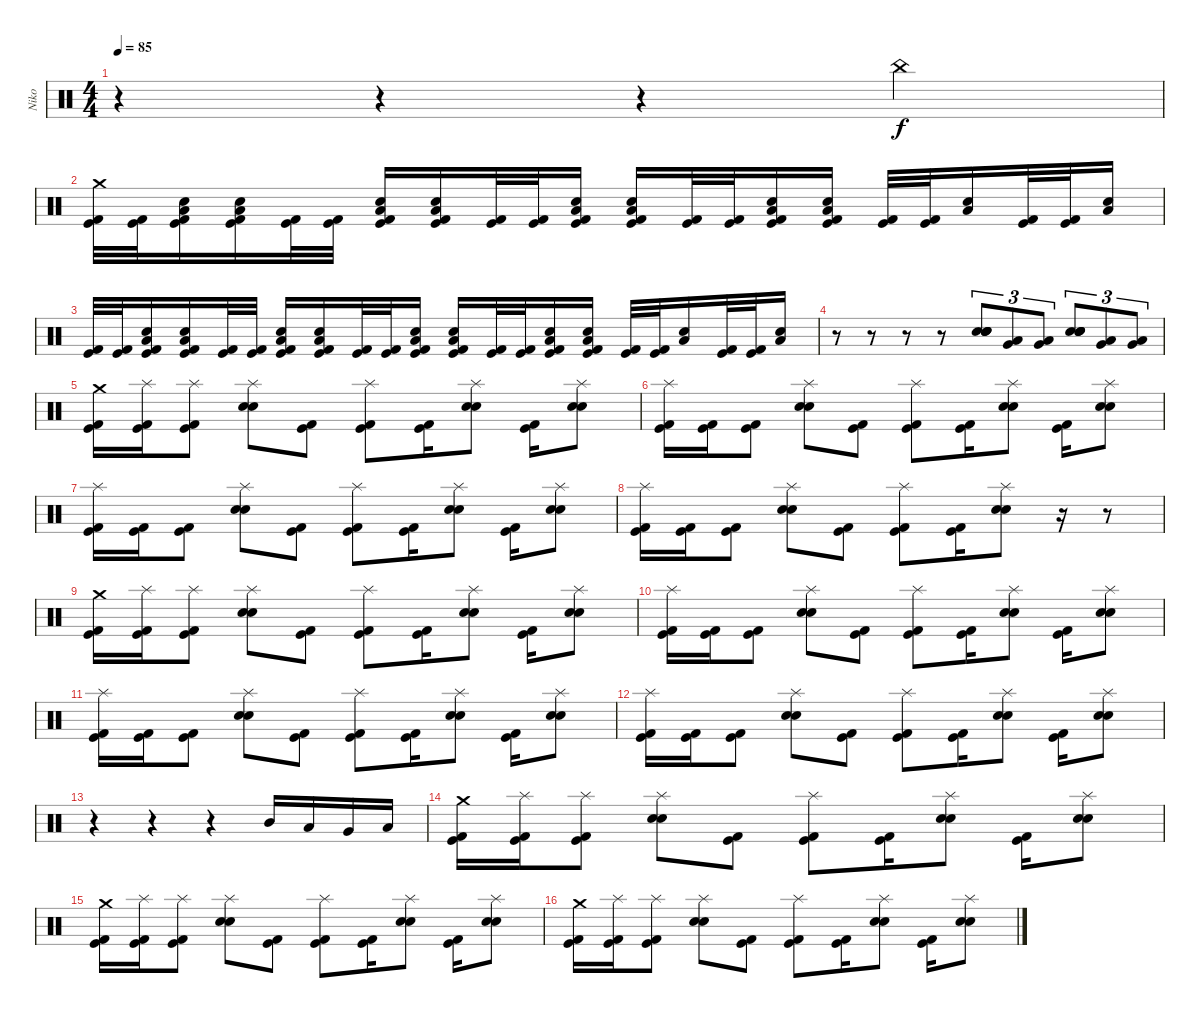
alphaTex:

\track ("Niko" "Niko") {instrument percussion}
\staff {score}
\articulation defaults
\ts (4 4)
\tempo 85
\clef neutral
\ks c
r.4{dy f} r.4 r.4 "China (hit)".4 |
("Crash medium (hit)" "Kick (hit) 2" "Kick (hit)").32 ("Kick (hit)" "Kick (hit) 2").32 ("Electric Snare (hit)" "Low Floor Tom (hit)" "Kick (hit)" "Kick (hit) 2").16 ("Electric Snare (hit)" "Low Floor Tom (hit)" "Kick (hit) 2" "Kick (hit)").16 ("Kick (hit) 2" "Kick (hit)").32 ("Kick (hit)" "Kick (hit) 2").32 ("Electric Snare (hit)" "Low Floor Tom (hit)" "Kick (hit) 2" "Kick (hit)").16 ("Electric Snare (hit)" "Low Floor Tom (hit)" "Kick (hit)" "Kick (hit) 2").16 ("Kick (hit) 2" "Kick (hit)").32 ("Kick (hit)" "Kick (hit) 2").32 ("Low Floor Tom (hit)" "Electric Snare (hit)" "Kick (hit) 2" "Kick (hit)").16 ("Low Floor Tom (hit)" "Electric Snare (hit)" "Kick (hit)" "Kick (hit) 2").16 ("Kick (hit) 2" "Kick (hit)").32 ("Kick (hit)" "Kick (hit) 2").32 ("Low Floor Tom (hit)" "Electric Snare (hit)" "Kick (hit) 2" "Kick (hit)").16 ("Low Floor Tom (hit)" "Electric Snare (hit)" "Kick (hit)" "Kick (hit) 2").16 ("Kick (hit) 2" "Kick (hit)").32 ("Kick (hit)" "Kick (hit) 2").32 ("Low Floor Tom (hit)" "Electric Snare (hit)").16 ("Kick (hit) 2" "Kick (hit)").32 ("Kick (hit)" "Kick (hit) 2").32 ("Low Floor Tom (hit)" "Electric Snare (hit)").16 |
("Kick (hit) 2" "Kick (hit)").32 ("Kick (hit)" "Kick (hit) 2").32 ("Electric Snare (hit)" "Low Floor Tom (hit)" "Kick (hit)" "Kick (hit) 2").16 ("Electric Snare (hit)" "Low Floor Tom (hit)" "Kick (hit) 2" "Kick (hit)").16 ("Kick (hit) 2" "Kick (hit)").32 ("Kick (hit)" "Kick (hit) 2").32 ("Electric Snare (hit)" "Low Floor Tom (hit)" "Kick (hit) 2" "Kick (hit)").16 ("Electric Snare (hit)" "Low Floor Tom (hit)" "Kick (hit)" "Kick (hit) 2").16 ("Kick (hit) 2" "Kick (hit)").32 ("Kick (hit)" "Kick (hit) 2").32 ("Low Floor Tom (hit)" "Electric Snare (hit)" "Kick (hit) 2" "Kick (hit)").16 ("Low Floor Tom (hit)" "Electric Snare (hit)" "Kick (hit)" "Kick (hit) 2").16 ("Kick (hit) 2" "Kick (hit)").32 ("Kick (hit)" "Kick (hit) 2").32 ("Low Floor Tom (hit)" "Electric Snare (hit)" "Kick (hit) 2" "Kick (hit)").16 ("Low Floor Tom (hit)" "Electric Snare (hit)" "Kick (hit)" "Kick (hit) 2").16 ("Kick (hit) 2" "Kick (hit)").32 ("Kick (hit)" "Kick (hit) 2").32 ("Low Floor Tom (hit)" "Electric Snare (hit)").16 ("Kick (hit) 2" "Kick (hit)").32 ("Kick (hit)" "Kick (hit) 2").32 ("Low Floor Tom (hit)" "Electric Snare (hit)").16 |
r.8 r.8 r.8 r.8 ("Electric Snare (hit)" "Electric Snare (hit)" "Electric Snare (hit)" "Electric Snare (hit)").8{tu (3 2)} ("Low Tom (hit)" "Very Low Tom (hit)").8{tu (3 2)} ("Low Floor Tom (hit)" "Very Low Tom (hit)").8{tu (3 2)} ("Electric Snare (hit)" "Electric Snare (hit)" "Electric Snare (hit)" "Electric Snare (hit)").8{tu (3 2)} ("Low Tom (hit)" "Very Low Tom (hit)").8{tu (3 2)} ("Low Floor Tom (hit)" "Very Low Tom (hit)").8{tu (3 2)} |
("Crash medium (hit)" "Kick (hit) 2" "Kick (hit)").16 ("Splash (hit)" "Kick (hit)" "Kick (hit) 2").16 ("Splash (hit)" "Kick (hit) 2" "Kick (hit)").8 ("Splash (hit)" "Electric Snare (hit)" "Electric Snare (hit)").8 ("Kick (hit) 2" "Kick (hit)").8 ("Splash (hit)" "Kick (hit)" "Kick (hit) 2").8 ("Kick (hit) 2" "Kick (hit)").16 ("Splash (hit)" "Electric Snare (hit)" "Electric Snare (hit)").8 ("Kick (hit) 2" "Kick (hit)").16 ("Splash (hit)" "Electric Snare (hit)" "Electric Snare (hit)").8 |
("Splash (hit)" "Kick (hit) 2" "Kick (hit)").16 ("Kick (hit)" "Kick (hit) 2").16 ("Kick (hit) 2" "Kick (hit)").8 ("Splash (hit)" "Electric Snare (hit)" "Electric Snare (hit)").8 ("Kick (hit) 2" "Kick (hit)").8 ("Splash (hit)" "Kick (hit)" "Kick (hit) 2").8 ("Kick (hit) 2" "Kick (hit)").16 ("Splash (hit)" "Electric Snare (hit)" "Electric Snare (hit)").8 ("Kick (hit) 2" "Kick (hit)").16 ("Splash (hit)" "Electric Snare (hit)" "Electric Snare (hit)").8 |
("Splash (hit)" "Kick (hit) 2" "Kick (hit)").16 ("Kick (hit)" "Kick (hit) 2").16 ("Kick (hit) 2" "Kick (hit)").8 ("Splash (hit)" "Electric Snare (hit)" "Electric Snare (hit)").8 ("Kick (hit) 2" "Kick (hit)").8 ("Splash (hit)" "Kick (hit)" "Kick (hit) 2").8 ("Kick (hit) 2" "Kick (hit)").16 ("Splash (hit)" "Electric Snare (hit)" "Electric Snare (hit)").8 ("Kick (hit) 2" "Kick (hit)").16 ("Splash (hit)" "Electric Snare (hit)" "Electric Snare (hit)").8 |
("Splash (hit)" "Kick (hit) 2" "Kick (hit)").16 ("Kick (hit)" "Kick (hit) 2").16 ("Kick (hit) 2" "Kick (hit)").8 ("Splash (hit)" "Electric Snare (hit)" "Electric Snare (hit)").8 ("Kick (hit) 2" "Kick (hit)").8 ("Splash (hit)" "Kick (hit)" "Kick (hit) 2").8 ("Kick (hit) 2" "Kick (hit)").16 ("Splash (hit)" "Electric Snare (hit)" "Electric Snare (hit)").8 r.16 r.8 |
("Crash medium (hit)" "Kick (hit) 2" "Kick (hit)").16 ("Splash (hit)" "Kick (hit)" "Kick (hit) 2").16 ("Splash (hit)" "Kick (hit) 2" "Kick (hit)").8 ("Splash (hit)" "Electric Snare (hit)" "Electric Snare (hit)").8 ("Kick (hit) 2" "Kick (hit)").8 ("Splash (hit)" "Kick (hit)" "Kick (hit) 2").8 ("Kick (hit) 2" "Kick (hit)").16 ("Splash (hit)" "Electric Snare (hit)" "Electric Snare (hit)").8 ("Kick (hit) 2" "Kick (hit)").16 ("Splash (hit)" "Electric Snare (hit)" "Electric Snare (hit)").8 |
("Splash (hit)" "Kick (hit) 2" "Kick (hit)").16 ("Kick (hit)" "Kick (hit) 2").16 ("Kick (hit) 2" "Kick (hit)").8 ("Splash (hit)" "Electric Snare (hit)" "Electric Snare (hit)").8 ("Kick (hit) 2" "Kick (hit)").8 ("Splash (hit)" "Kick (hit)" "Kick (hit) 2").8 ("Kick (hit) 2" "Kick (hit)").16 ("Splash (hit)" "Electric Snare (hit)" "Electric Snare (hit)").8 ("Kick (hit) 2" "Kick (hit)").16 ("Splash (hit)" "Electric Snare (hit)" "Electric Snare (hit)").8 |
("Splash (hit)" "Kick (hit) 2" "Kick (hit)").16 ("Kick (hit)" "Kick (hit) 2").16 ("Kick (hit) 2" "Kick (hit)").8 ("Splash (hit)" "Electric Snare (hit)" "Electric Snare (hit)").8 ("Kick (hit) 2" "Kick (hit)").8 ("Splash (hit)" "Kick (hit)" "Kick (hit) 2").8 ("Kick (hit) 2" "Kick (hit)").16 ("Splash (hit)" "Electric Snare (hit)" "Electric Snare (hit)").8 ("Kick (hit) 2" "Kick (hit)").16 ("Splash (hit)" "Electric Snare (hit)" "Electric Snare (hit)").8 |
("Splash (hit)" "Kick (hit) 2" "Kick (hit)").16 ("Kick (hit)" "Kick (hit) 2").16 ("Kick (hit) 2" "Kick (hit)").8 ("Splash (hit)" "Electric Snare (hit)" "Electric Snare (hit)").8 ("Kick (hit) 2" "Kick (hit)").8 ("Splash (hit)" "Kick (hit)" "Kick (hit) 2").8 ("Kick (hit) 2" "Kick (hit)").16 ("Splash (hit)" "Electric Snare (hit)" "Electric Snare (hit)").8 ("Kick (hit) 2" "Kick (hit)").16 ("Splash (hit)" "Electric Snare (hit)" "Electric Snare (hit)").8 |
r.4 r.4 r.4 "Mid Tom (hit)".16 "Low Tom (hit)".16 "Very Low Tom (hit)".16 "Low Floor Tom (hit)".16 |
("Crash medium (hit)" "Kick (hit) 2" "Kick (hit)").16 ("Splash (hit)" "Kick (hit)" "Kick (hit) 2").16 ("Splash (hit)" "Kick (hit) 2" "Kick (hit)").8 ("Splash (hit)" "Electric Snare (hit)" "Electric Snare (hit)").8 ("Kick (hit) 2" "Kick (hit)").8 ("Splash (hit)" "Kick (hit)" "Kick (hit) 2").8 ("Kick (hit) 2" "Kick (hit)").16 ("Splash (hit)" "Electric Snare (hit)" "Electric Snare (hit)").8 ("Kick (hit) 2" "Kick (hit)").16 ("Splash (hit)" "Electric Snare (hit)" "Electric Snare (hit)").8 |
("Crash medium (hit)" "Kick (hit) 2" "Kick (hit)").16 ("Splash (hit)" "Kick (hit)" "Kick (hit) 2").16 ("Splash (hit)" "Kick (hit) 2" "Kick (hit)").8 ("Splash (hit)" "Electric Snare (hit)" "Electric Snare (hit)").8 ("Kick (hit) 2" "Kick (hit)").8 ("Splash (hit)" "Kick (hit)" "Kick (hit) 2").8 ("Kick (hit) 2" "Kick (hit)").16 ("Splash (hit)" "Electric Snare (hit)" "Electric Snare (hit)").8 ("Kick (hit) 2" "Kick (hit)").16 ("Splash (hit)" "Electric Snare (hit)" "Electric Snare (hit)").8 |
("Crash medium (hit)" "Kick (hit) 2" "Kick (hit)").16 ("Splash (hit)" "Kick (hit)" "Kick (hit) 2").16 ("Splash (hit)" "Kick (hit) 2" "Kick (hit)").8 ("Splash (hit)" "Electric Snare (hit)" "Electric Snare (hit)").8 ("Kick (hit) 2" "Kick (hit)").8 ("Splash (hit)" "Kick (hit)" "Kick (hit) 2").8 ("Kick (hit) 2" "Kick (hit)").16 ("Splash (hit)" "Electric Snare (hit)" "Electric Snare (hit)").8 ("Kick (hit) 2" "Kick (hit)").16 ("Splash (hit)" "Electric Snare (hit)" "Electric Snare (hit)").8
